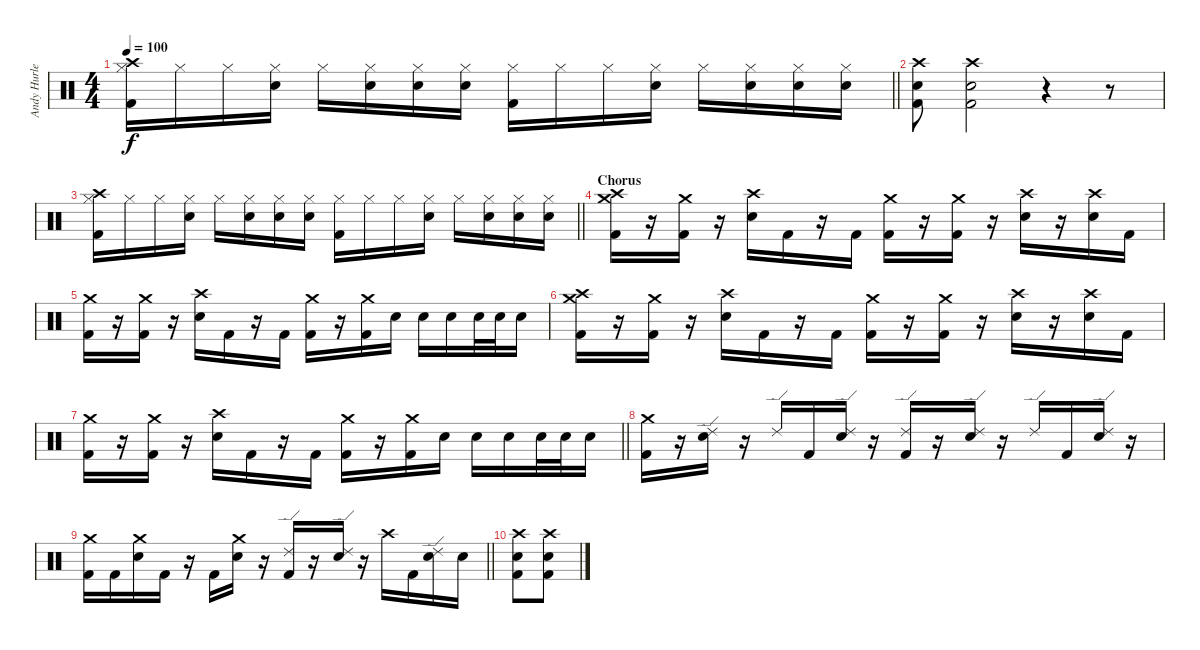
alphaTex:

\track ("Andy Hurley" "Andy Hurle") {instrument percussion}
\staff {score}
\articulation defaults
\ts (4 4)
\tempo 100
\clef neutral
\barLineRight lightlight
\ks c
("Crash high (hit)" "Hi-Hat (closed)" "Kick (hit) 2").16{dy f} "Hi-Hat (closed)".16 "Hi-Hat (closed)".16 ("Hi-Hat (closed)" "Snare (hit) 2").16 "Hi-Hat (closed)".16 ("Hi-Hat (closed)" "Snare (hit) 2").16 ("Hi-Hat (closed)" "Snare (hit) 2").16 ("Hi-Hat (closed)" "Snare (hit) 2").16 ("Hi-Hat (closed)" "Kick (hit) 2").16 "Hi-Hat (closed)".16 "Hi-Hat (closed)".16 ("Hi-Hat (closed)" "Snare (hit) 2").16 "Hi-Hat (closed)".16 ("Hi-Hat (closed)" "Snare (hit) 2").16 ("Hi-Hat (closed)" "Snare (hit) 2").16 ("Hi-Hat (closed)" "Snare (hit) 2").16 |
("Crash high (hit)" "Snare (hit) 2" "Kick (hit) 2").8 ("Crash high (hit)" "Snare (hit) 2" "Kick (hit) 2").2 r.4 r.8 |
\barLineRight lightlight
("Crash high (hit)" "Hi-Hat (closed)" "Kick (hit) 2").16 "Hi-Hat (closed)".16 "Hi-Hat (closed)".16 ("Hi-Hat (closed)" "Snare (hit) 2").16 "Hi-Hat (closed)".16 ("Hi-Hat (closed)" "Snare (hit) 2").16 ("Hi-Hat (closed)" "Snare (hit) 2").16 ("Hi-Hat (closed)" "Snare (hit) 2").16 ("Hi-Hat (closed)" "Kick (hit) 2").16 "Hi-Hat (closed)".16 "Hi-Hat (closed)".16 ("Hi-Hat (closed)" "Snare (hit) 2").16 "Hi-Hat (closed)".16 ("Hi-Hat (closed)" "Snare (hit) 2").16 ("Hi-Hat (closed)" "Snare (hit) 2").16 ("Hi-Hat (closed)" "Snare (hit) 2").16 |
\section ("" "Chorus")
("Crash high (hit)" "Crash medium (hit)" "Kick (hit) 2").16 r.16 ("Crash medium (hit)" "Kick (hit) 2").16 r.16 ("Crash high (hit)" "Electric Snare (hit)").16 "Kick (hit) 2".16 r.16 "Kick (hit) 2".16 ("Crash medium (hit)" "Kick (hit) 2").16 r.16 ("Crash medium (hit)" "Kick (hit) 2").16 r.16 ("Crash high (hit)" "Electric Snare (hit)").16 r.16 ("Crash high (hit)" "Electric Snare (hit)").16 "Kick (hit) 2".16 |
("Crash medium (hit)" "Kick (hit) 2").16 r.16 ("Crash medium (hit)" "Kick (hit) 2").16 r.16 ("Crash high (hit)" "Electric Snare (hit)").16 "Kick (hit) 2".16 r.16 "Kick (hit) 2".16 ("Crash medium (hit)" "Kick (hit) 2").16 r.16 ("Crash medium (hit)" "Kick (hit) 2").16 "Electric Snare (hit)".16 "Electric Snare (hit)".16 "Electric Snare (hit)".16 "Electric Snare (hit)".32 "Electric Snare (hit)".32 "Electric Snare (hit)".16 |
("Crash high (hit)" "Crash medium (hit)" "Kick (hit) 2").16 r.16 ("Crash medium (hit)" "Kick (hit) 2").16 r.16 ("Crash high (hit)" "Electric Snare (hit)").16 "Kick (hit) 2".16 r.16 "Kick (hit) 2".16 ("Crash medium (hit)" "Kick (hit) 2").16 r.16 ("Crash medium (hit)" "Kick (hit) 2").16 r.16 ("Crash high (hit)" "Electric Snare (hit)").16 r.16 ("Crash high (hit)" "Electric Snare (hit)").16 "Kick (hit) 2".16 |
\barLineRight lightlight
("Crash medium (hit)" "Kick (hit) 2").16 r.16 ("Crash medium (hit)" "Kick (hit) 2").16 r.16 ("Crash high (hit)" "Electric Snare (hit)").16 "Kick (hit) 2".16 r.16 "Kick (hit) 2".16 ("Crash medium (hit)" "Kick (hit) 2").16 r.16 ("Crash medium (hit)" "Kick (hit) 2").16 "Electric Snare (hit)".16 "Electric Snare (hit)".16 "Electric Snare (hit)".16 "Electric Snare (hit)".32 "Electric Snare (hit)".32 "Electric Snare (hit)".16 |
("Crash medium (hit)" "Kick (hit) 2").16 r.16 ("Ride (edge) 2" "Electric Snare (hit)").16 r.16 "Ride (edge) 2".16 "Kick (hit) 2".16 ("Ride (edge) 2" "Electric Snare (hit)").16 r.16 ("Ride (edge) 2" "Kick (hit) 2").16 r.16 ("Ride (edge) 2" "Electric Snare (hit)").16 r.16 "Ride (edge) 2".16 "Kick (hit) 2".16 ("Ride (edge) 2" "Electric Snare (hit)").16 r.16 |
\barLineRight lightlight
("Crash medium (hit)" "Kick (hit) 2").16 "Kick (hit) 2".16 ("Crash medium (hit)" "Electric Snare (hit)").16 "Kick (hit) 2".16 r.16 "Kick (hit) 2".16 ("Crash medium (hit)" "Electric Snare (hit)").16 r.16 ("Ride (edge) 2" "Kick (hit) 2").16 r.16 ("Ride (edge) 2" "Electric Snare (hit)").16 r.16 "Crash high (hit)".16 "Kick (hit) 2".16 ("Ride (edge) 2" "Electric Snare (hit)").16 "Electric Snare (hit)".16 |
("Crash high (hit)" "Snare (hit) 2" "Kick (hit) 2").8 ("Crash high (hit)" "Snare (hit) 2" "Kick (hit) 2").8
